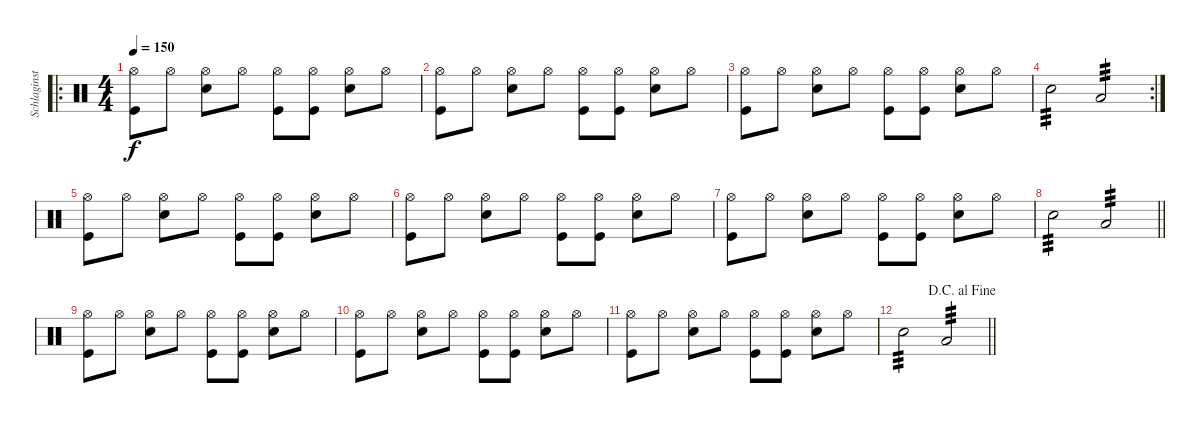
\track ("Schlaginstrumente - Auswahl" "Schlaginst") {instrument percussion}
\staff {score}
\articulation defaults
\ro
\ts (4 4)
\tempo 150
\clef neutral
\ks c
("Hi-Hat (open)" "Kick (hit)").8{dy f} "Hi-Hat (open)".8 ("Hi-Hat (open)" "Electric Snare (hit)").8 "Hi-Hat (open)".8 ("Hi-Hat (open)" "Kick (hit)").8 ("Hi-Hat (open)" "Kick (hit)").8 ("Hi-Hat (open)" "Electric Snare (hit)").8 "Hi-Hat (open)".8 |
("Hi-Hat (open)" "Kick (hit)").8 "Hi-Hat (open)".8 ("Hi-Hat (open)" "Electric Snare (hit)").8 "Hi-Hat (open)".8 ("Hi-Hat (open)" "Kick (hit)").8 ("Hi-Hat (open)" "Kick (hit)").8 ("Hi-Hat (open)" "Electric Snare (hit)").8 "Hi-Hat (open)".8 |
("Hi-Hat (open)" "Kick (hit)").8 "Hi-Hat (open)".8 ("Hi-Hat (open)" "Electric Snare (hit)").8 "Hi-Hat (open)".8 ("Hi-Hat (open)" "Kick (hit)").8 ("Hi-Hat (open)" "Kick (hit)").8 ("Hi-Hat (open)" "Electric Snare (hit)").8 "Hi-Hat (open)".8 |
\rc 2 "Electric Snare (hit)".2{tp 3} "Low Tom (hit)".2{tp 3}
|
("Hi-Hat (open)" "Kick (hit)").8 "Hi-Hat (open)".8 ("Hi-Hat (open)" "Electric Snare (hit)").8 "Hi-Hat (open)".8 ("Hi-Hat (open)" "Kick (hit)").8 ("Hi-Hat (open)" "Kick (hit)").8 ("Hi-Hat (open)" "Electric Snare (hit)").8 "Hi-Hat (open)".8 |
("Hi-Hat (open)" "Kick (hit)").8 "Hi-Hat (open)".8 ("Hi-Hat (open)" "Electric Snare (hit)").8 "Hi-Hat (open)".8 ("Hi-Hat (open)" "Kick (hit)").8 ("Hi-Hat (open)" "Kick (hit)").8 ("Hi-Hat (open)" "Electric Snare (hit)").8 "Hi-Hat (open)".8 |
("Hi-Hat (open)" "Kick (hit)").8 "Hi-Hat (open)".8 ("Hi-Hat (open)" "Electric Snare (hit)").8 "Hi-Hat (open)".8 ("Hi-Hat (open)" "Kick (hit)").8 ("Hi-Hat (open)" "Kick (hit)").8 ("Hi-Hat (open)" "Electric Snare (hit)").8 "Hi-Hat (open)".8 |
\barLineRight lightlight "Electric Snare (hit)".2{tp 3} "Low Tom (hit)".2{tp 3}
|
("Hi-Hat (open)" "Kick (hit)").8 "Hi-Hat (open)".8 ("Hi-Hat (open)" "Electric Snare (hit)").8 "Hi-Hat (open)".8 ("Hi-Hat (open)" "Kick (hit)").8 ("Hi-Hat (open)" "Kick (hit)").8 ("Hi-Hat (open)" "Electric Snare (hit)").8 "Hi-Hat (open)".8 |
("Hi-Hat (open)" "Kick (hit)").8 "Hi-Hat (open)".8 ("Hi-Hat (open)" "Electric Snare (hit)").8 "Hi-Hat (open)".8 ("Hi-Hat (open)" "Kick (hit)").8 ("Hi-Hat (open)" "Kick (hit)").8 ("Hi-Hat (open)" "Electric Snare (hit)").8 "Hi-Hat (open)".8 |
("Hi-Hat (open)" "Kick (hit)").8 "Hi-Hat (open)".8 ("Hi-Hat (open)" "Electric Snare (hit)").8 "Hi-Hat (open)".8 ("Hi-Hat (open)" "Kick (hit)").8 ("Hi-Hat (open)" "Kick (hit)").8 ("Hi-Hat (open)" "Electric Snare (hit)").8 "Hi-Hat (open)".8 |
\jump dacapoalfine
\barLineRight lightlight "Electric Snare (hit)".2{tp 3} "Low Tom (hit)".2{tp 3}
